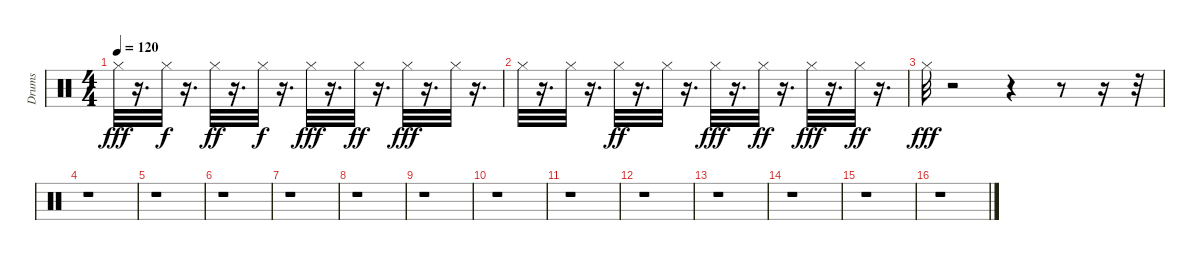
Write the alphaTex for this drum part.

\track ("Drums" "Drums") {instrument percussion}
\staff {score}
\articulation defaults
\ts (4 4)
\tempo 120
\clef neutral
\ks c "Hi-Hat (closed)".32{dy fff}
r.16{d} "Hi-Hat (closed)".32{dy f} r.16{d} "Hi-Hat (closed)".32{dy ff} r.16{d} "Hi-Hat (closed)".32{dy f} r.16{d} "Hi-Hat (closed)".32{dy fff} r.16{d} "Hi-Hat (closed)".32{dy ff} r.16{d} "Hi-Hat (closed)".32{dy fff} r.16{d} "Hi-Hat (closed)".32 r.16{d} |
"Hi-Hat (closed)".32 r.16{d} "Hi-Hat (closed)".32 r.16{d} "Hi-Hat (closed)".32{dy ff} r.16{d} "Hi-Hat (closed)".32 r.16{d} "Hi-Hat (closed)".32{dy fff} r.16{d} "Hi-Hat (closed)".32{dy ff} r.16{d} "Hi-Hat (closed)".32{dy fff} r.16{d} "Hi-Hat (closed)".32{dy ff} r.16{d} |
"Hi-Hat (closed)".32{dy fff} r.2 r.4 r.8 r.16 r.32 |
r.1 |
r.1 |
r.1 |
r.1 |
r.1 |
r.1 |
r.1 |
r.1 |
r.1 |
r.1 |
r.1 |
r.1 |
r.1
